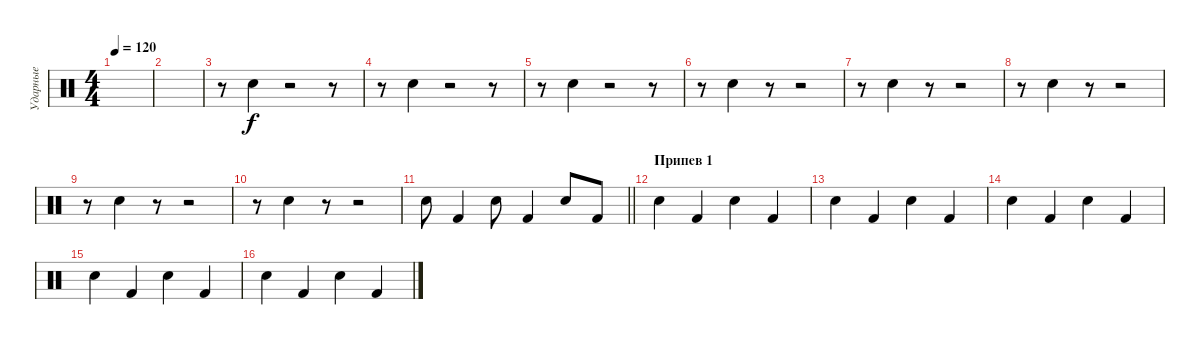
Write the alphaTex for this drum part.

\track ("Ударные" "Ударные") {instrument percussion}
\staff {score}
\articulation defaults
\ts (4 4)
\tempo 120
\clef neutral
\ks c
|
|
r.8 "Electric Snare (hit)".4 r.2 r.8 |
r.8 "Electric Snare (hit)".4 r.2 r.8 |
r.8 "Electric Snare (hit)".4 r.2 r.8 |
r.8 "Electric Snare (hit)".4 r.8 r.2 |
r.8 "Electric Snare (hit)".4 r.8 r.2 |
r.8 "Electric Snare (hit)".4 r.8 r.2 |
r.8 "Electric Snare (hit)".4 r.8 r.2 |
r.8 "Electric Snare (hit)".4 r.8 r.2 |
\barLineRight lightlight "Electric Snare (hit)".8 "Kick (hit) 2".4 "Electric Snare (hit)".8 "Kick (hit) 2".4 "Electric Snare (hit)".8 "Kick (hit) 2".8
|
\section ("" "Припев 1")
"Electric Snare (hit)".4 "Kick (hit) 2".4 "Electric Snare (hit)".4 "Kick (hit) 2".4 |
"Electric Snare (hit)".4 "Kick (hit) 2".4 "Electric Snare (hit)".4 "Kick (hit) 2".4 |
"Electric Snare (hit)".4 "Kick (hit) 2".4 "Electric Snare (hit)".4 "Kick (hit) 2".4 |
"Electric Snare (hit)".4 "Kick (hit) 2".4 "Electric Snare (hit)".4 "Kick (hit) 2".4 |
"Electric Snare (hit)".4 "Kick (hit) 2".4 "Electric Snare (hit)".4 "Kick (hit) 2".4
